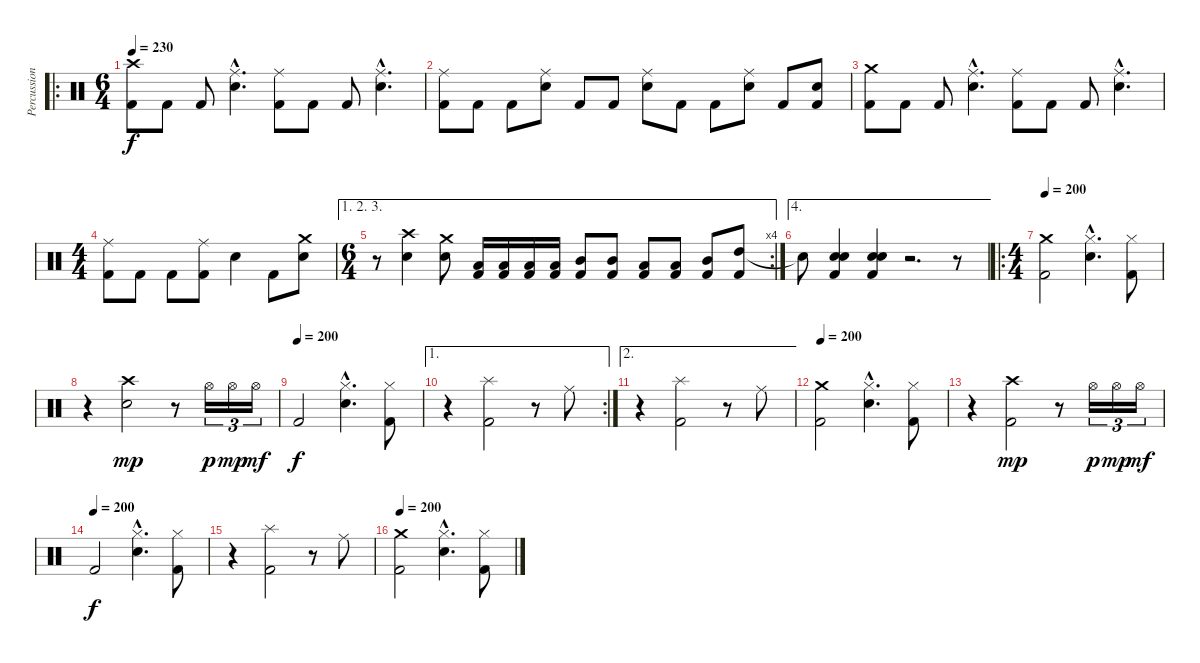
\track ("Percussions" "Percussion") {instrument percussion}
\staff {score}
\articulation defaults
\ro
\ts (6 4)
\tempo 230
\clef neutral
\ks c
("Crash high (hit)" "Kick (hit) 2").8{dy f} "Kick (hit) 2".8 "Kick (hit) 2".8 ("Ride (middle)"{hac} "Electric Snare (hit)"{hac}).4{d} ("Ride (middle)" "Kick (hit) 2").8 "Kick (hit) 2".8 "Kick (hit) 2".8 ("Ride (middle)"{hac} "Electric Snare (hit)"{hac}).4{d} |
("Ride (middle)" "Kick (hit) 2").8 "Kick (hit) 2".8 "Kick (hit) 2".8 ("Ride (middle)" "Electric Snare (hit)").8 "Kick (hit) 2".8 "Kick (hit) 2".8 ("Ride (middle)" "Electric Snare (hit)").8 "Kick (hit) 2".8 "Kick (hit) 2".8 ("Ride (middle)" "Electric Snare (hit)").8 "Kick (hit) 2".8 ("Electric Snare (hit)" "Kick (hit) 2").8 |
("Crash medium (hit)" "Kick (hit) 2").8 "Kick (hit) 2".8 "Kick (hit) 2".8 ("Ride (middle)"{hac} "Electric Snare (hit)"{hac}).4{d} ("Ride (middle)" "Kick (hit) 2").8 "Kick (hit) 2".8 "Kick (hit) 2".8 ("Ride (middle)"{hac} "Electric Snare (hit)"{hac}).4{d} |
\ts (4 4)
("Ride (middle)" "Kick (hit) 2").8 "Kick (hit) 2".8 "Kick (hit) 2".8 ("Ride (middle)" "Kick (hit) 2").8 "Electric Snare (hit)".4 "Kick (hit) 2".8 ("Crash medium (hit)" "Electric Snare (hit)").8 |
\ae (1 2 3)
\rc 4
\ts (6 4)
r.8 ("Crash high (hit)" "Electric Snare (hit)").4 ("Crash medium (hit)" "Electric Snare (hit)").8 ("Low Floor Tom (hit)" "Kick (hit) 2").16 ("Low Floor Tom (hit)" "Kick (hit) 2").16 ("Low Floor Tom (hit)" "Kick (hit) 2").16 ("Low Tom (hit)" "Kick (hit) 2").16 ("Mid Tom (hit)" "Kick (hit) 2").8 ("Mid Tom (hit)" "Kick (hit) 2").8 ("Low Floor Tom (hit)" "Kick (hit) 2").8 ("Low Tom (hit)" "Kick (hit) 2").8 ("Mid Tom (hit)" "Kick (hit) 2").8 ("High Tom (hit)" "Kick (hit) 2").8 |
\ae 4 "Snare (hit)"{t}.8
("Electric Snare (hit)" "Electric Snare (hit)" "Kick (hit) 2").4 ("Electric Snare (hit)" "Electric Snare (hit)" "Kick (hit) 2").4 r.2{d} r.8 |
\ro
\ts (4 4)
\tempo 200
("Crash medium (hit)" "Kick (hit) 2").2 ("Hi-Hat (closed)"{hac} "Electric Snare (hit)"{hac}).4{d} ("Hi-Hat (closed)" "Kick (hit) 2").8 |
r.4 ("Crash high (hit)" "Electric Snare (hit)").2{dy mp} r.8 "Hi-Hat (open)".16{tu (3 2) dy p} "Hi-Hat (open)".16{tu (3 2) dy mp} "Hi-Hat (open)".16{tu (3 2) dy mf} |
\tempo (200)
"Kick (hit) 2".2{dy f} ("Hi-Hat (closed)"{hac} "Electric Snare (hit)"{hac}).4{d} ("Hi-Hat (closed)" "Kick (hit) 2").8 |
\ae 1
\rc 2
r.4 ("Splash (hit)" "Kick (hit) 2").2 r.8 "Ride (middle)".8 |
\ae 2
r.4 ("Splash (hit)" "Kick (hit) 2").2 r.8 "Ride (middle)".8 |
\tempo 200
("Crash medium (hit)" "Kick (hit) 2").2 ("Hi-Hat (closed)"{hac} "Electric Snare (hit)"{hac}).4{d} ("Hi-Hat (closed)" "Kick (hit) 2").8 |
r.4 ("Crash high (hit)" "Kick (hit) 2").2{dy mp} r.8 "Hi-Hat (open)".16{tu (3 2) dy p} "Hi-Hat (open)".16{tu (3 2) dy mp} "Hi-Hat (open)".16{tu (3 2) dy mf} |
\tempo (200)
"Kick (hit) 2".2{dy f} ("Hi-Hat (closed)"{hac} "Electric Snare (hit)"{hac}).4{d} ("Hi-Hat (closed)" "Kick (hit) 2").8 |
r.4 ("Splash (hit)" "Kick (hit) 2").2 r.8 "Ride (middle)".8 |
\tempo 200
("Crash medium (hit)" "Kick (hit) 2").2 ("Hi-Hat (closed)"{hac} "Electric Snare (hit)"{hac}).4{d} ("Hi-Hat (closed)" "Kick (hit) 2").8
